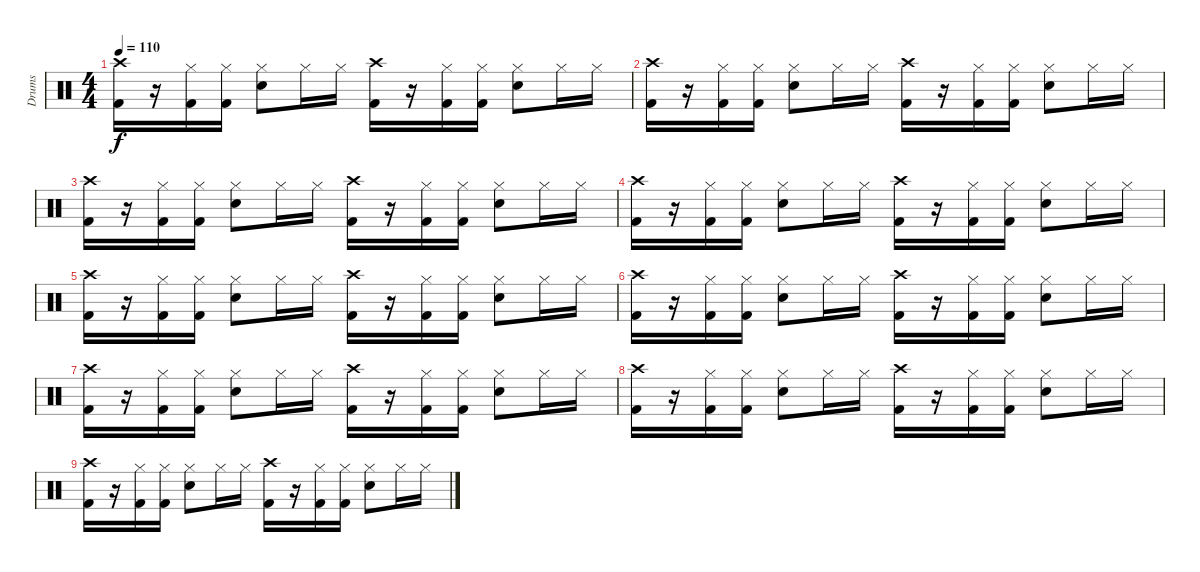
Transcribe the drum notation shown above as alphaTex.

\track ("Drums" "Drums") {instrument percussion}
\staff {score}
\articulation defaults
\ts (4 4)
\tempo 110
\clef neutral
\ks c
("Crash high (hit)" "Kick (hit) 2").16{dy f} r.16 ("Hi-Hat (closed)" "Kick (hit) 2").16 ("Hi-Hat (closed)" "Kick (hit) 2").16 ("Hi-Hat (closed)" "Snare (hit) 2").8 "Hi-Hat (closed)".16 "Hi-Hat (closed)".16 ("Crash high (hit)" "Kick (hit) 2").16 r.16 ("Hi-Hat (closed)" "Kick (hit) 2").16 ("Hi-Hat (closed)" "Kick (hit) 2").16 ("Hi-Hat (closed)" "Snare (hit) 2").8 "Hi-Hat (closed)".16 "Hi-Hat (closed)".16 |
("Crash high (hit)" "Kick (hit) 2").16 r.16 ("Hi-Hat (closed)" "Kick (hit) 2").16 ("Hi-Hat (closed)" "Kick (hit) 2").16 ("Hi-Hat (closed)" "Snare (hit) 2").8 "Hi-Hat (closed)".16 "Hi-Hat (closed)".16 ("Crash high (hit)" "Kick (hit) 2").16 r.16 ("Hi-Hat (closed)" "Kick (hit) 2").16 ("Hi-Hat (closed)" "Kick (hit) 2").16 ("Hi-Hat (closed)" "Snare (hit) 2").8 "Hi-Hat (closed)".16 "Hi-Hat (closed)".16 |
("Crash high (hit)" "Kick (hit) 2").16 r.16 ("Hi-Hat (closed)" "Kick (hit) 2").16 ("Hi-Hat (closed)" "Kick (hit) 2").16 ("Hi-Hat (closed)" "Snare (hit) 2").8 "Hi-Hat (closed)".16 "Hi-Hat (closed)".16 ("Crash high (hit)" "Kick (hit) 2").16 r.16 ("Hi-Hat (closed)" "Kick (hit) 2").16 ("Hi-Hat (closed)" "Kick (hit) 2").16 ("Hi-Hat (closed)" "Snare (hit) 2").8 "Hi-Hat (closed)".16 "Hi-Hat (closed)".16 |
("Crash high (hit)" "Kick (hit) 2").16 r.16 ("Hi-Hat (closed)" "Kick (hit) 2").16 ("Hi-Hat (closed)" "Kick (hit) 2").16 ("Hi-Hat (closed)" "Snare (hit) 2").8 "Hi-Hat (closed)".16 "Hi-Hat (closed)".16 ("Crash high (hit)" "Kick (hit) 2").16 r.16 ("Hi-Hat (closed)" "Kick (hit) 2").16 ("Hi-Hat (closed)" "Kick (hit) 2").16 ("Hi-Hat (closed)" "Snare (hit) 2").8 "Hi-Hat (closed)".16 "Hi-Hat (closed)".16 |
("Crash high (hit)" "Kick (hit) 2").16 r.16 ("Hi-Hat (closed)" "Kick (hit) 2").16 ("Hi-Hat (closed)" "Kick (hit) 2").16 ("Hi-Hat (closed)" "Snare (hit) 2").8 "Hi-Hat (closed)".16 "Hi-Hat (closed)".16 ("Crash high (hit)" "Kick (hit) 2").16 r.16 ("Hi-Hat (closed)" "Kick (hit) 2").16 ("Hi-Hat (closed)" "Kick (hit) 2").16 ("Hi-Hat (closed)" "Snare (hit) 2").8 "Hi-Hat (closed)".16 "Hi-Hat (closed)".16 |
("Crash high (hit)" "Kick (hit) 2").16 r.16 ("Hi-Hat (closed)" "Kick (hit) 2").16 ("Hi-Hat (closed)" "Kick (hit) 2").16 ("Hi-Hat (closed)" "Snare (hit) 2").8 "Hi-Hat (closed)".16 "Hi-Hat (closed)".16 ("Crash high (hit)" "Kick (hit) 2").16 r.16 ("Hi-Hat (closed)" "Kick (hit) 2").16 ("Hi-Hat (closed)" "Kick (hit) 2").16 ("Hi-Hat (closed)" "Snare (hit) 2").8 "Hi-Hat (closed)".16 "Hi-Hat (closed)".16 |
("Crash high (hit)" "Kick (hit) 2").16 r.16 ("Hi-Hat (closed)" "Kick (hit) 2").16 ("Hi-Hat (closed)" "Kick (hit) 2").16 ("Hi-Hat (closed)" "Snare (hit) 2").8 "Hi-Hat (closed)".16 "Hi-Hat (closed)".16 ("Crash high (hit)" "Kick (hit) 2").16 r.16 ("Hi-Hat (closed)" "Kick (hit) 2").16 ("Hi-Hat (closed)" "Kick (hit) 2").16 ("Hi-Hat (closed)" "Snare (hit) 2").8 "Hi-Hat (closed)".16 "Hi-Hat (closed)".16 |
("Crash high (hit)" "Kick (hit) 2").16 r.16 ("Hi-Hat (closed)" "Kick (hit) 2").16 ("Hi-Hat (closed)" "Kick (hit) 2").16 ("Hi-Hat (closed)" "Snare (hit) 2").8 "Hi-Hat (closed)".16 "Hi-Hat (closed)".16 ("Crash high (hit)" "Kick (hit) 2").16 r.16 ("Hi-Hat (closed)" "Kick (hit) 2").16 ("Hi-Hat (closed)" "Kick (hit) 2").16 ("Hi-Hat (closed)" "Snare (hit) 2").8 "Hi-Hat (closed)".16 "Hi-Hat (closed)".16 |
("Crash high (hit)" "Kick (hit) 2").16 r.16 ("Hi-Hat (closed)" "Kick (hit) 2").16 ("Hi-Hat (closed)" "Kick (hit) 2").16 ("Hi-Hat (closed)" "Snare (hit) 2").8 "Hi-Hat (closed)".16 "Hi-Hat (closed)".16 ("Crash high (hit)" "Kick (hit) 2").16 r.16 ("Hi-Hat (closed)" "Kick (hit) 2").16 ("Hi-Hat (closed)" "Kick (hit) 2").16 ("Hi-Hat (closed)" "Snare (hit) 2").8 "Hi-Hat (closed)".16 "Hi-Hat (closed)".16
